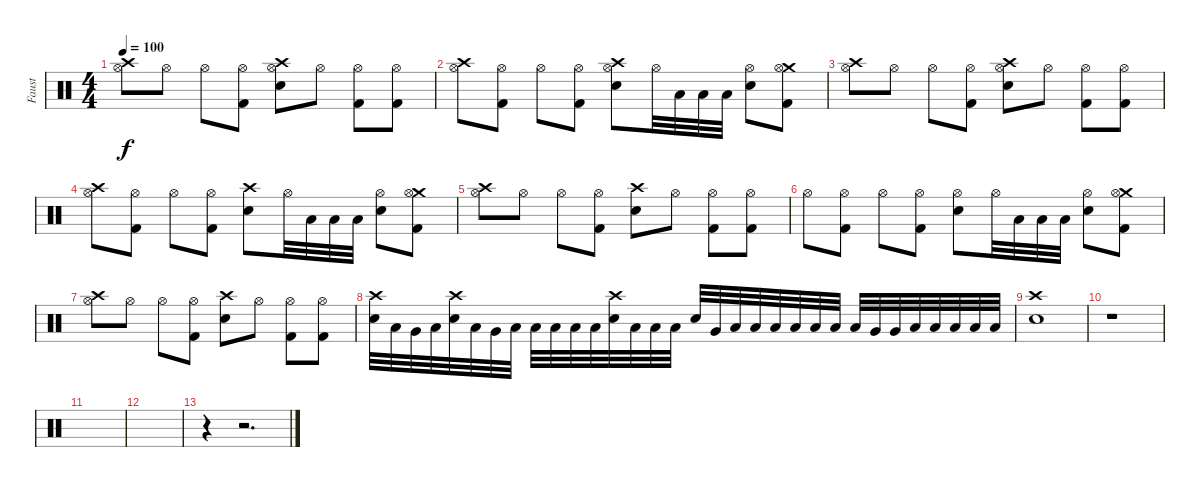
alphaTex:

\track ("Faust" "Faust") {instrument percussion}
\staff {score}
\articulation defaults
\ts (4 4)
\tempo 100
\clef neutral
\ks c
("Crash high (hit)" "Hi-Hat (open)").8{dy f} "Hi-Hat (open)".8 "Hi-Hat (open)".8 ("Hi-Hat (open)" "Kick (hit) 2").8 ("Crash high (hit)" "Snare (hit) 2" "Hi-Hat (open)").8 "Hi-Hat (open)".8 ("Hi-Hat (open)" "Kick (hit) 2").8 ("Hi-Hat (open)" "Kick (hit) 2").8 |
("Crash high (hit)" "Hi-Hat (open)").8 ("Hi-Hat (open)" "Kick (hit) 2").8 "Hi-Hat (open)".8 ("Hi-Hat (open)" "Kick (hit) 2").8 ("Crash high (hit)" "Snare (hit) 2" "Hi-Hat (open)").8 "Hi-Hat (open)".32 "Low Tom (hit)".32 "Low Tom (hit)".32 "Low Tom (hit)".32 ("Snare (hit) 2" "Hi-Hat (open)").8 ("Crash medium (hit)" "Hi-Hat (open)" "Kick (hit) 2").8 |
("Crash high (hit)" "Hi-Hat (open)").8 "Hi-Hat (open)".8 "Hi-Hat (open)".8 ("Hi-Hat (open)" "Kick (hit) 2").8 ("Crash high (hit)" "Snare (hit) 2" "Hi-Hat (open)").8 "Hi-Hat (open)".8 ("Hi-Hat (open)" "Kick (hit) 2").8 ("Hi-Hat (open)" "Kick (hit) 2").8 |
("Crash high (hit)" "Hi-Hat (open)").8 ("Hi-Hat (open)" "Kick (hit) 2").8 "Hi-Hat (open)".8 ("Hi-Hat (open)" "Kick (hit) 2").8 ("Crash high (hit)" "Snare (hit) 2").8 "Hi-Hat (open)".32 "Low Tom (hit)".32 "Low Tom (hit)".32 "Low Tom (hit)".32 ("Snare (hit) 2" "Hi-Hat (open)").8 ("Crash medium (hit)" "Hi-Hat (open)" "Kick (hit) 2").8 |
("Crash high (hit)" "Hi-Hat (open)").8 "Hi-Hat (open)".8 "Hi-Hat (open)".8 ("Hi-Hat (open)" "Kick (hit) 2").8 ("Crash high (hit)" "Snare (hit) 2").8 "Hi-Hat (open)".8 ("Hi-Hat (open)" "Kick (hit) 2").8 ("Hi-Hat (open)" "Kick (hit) 2").8 |
"Hi-Hat (open)".8 ("Hi-Hat (open)" "Kick (hit) 2").8 "Hi-Hat (open)".8 ("Hi-Hat (open)" "Kick (hit) 2").8 ("Snare (hit) 2" "Hi-Hat (open)").8 "Hi-Hat (open)".32 "Low Tom (hit)".32 "Low Tom (hit)".32 "Low Tom (hit)".32 ("Snare (hit) 2" "Hi-Hat (open)").8 ("Crash medium (hit)" "Hi-Hat (open)" "Kick (hit) 2").8 |
("Crash high (hit)" "Hi-Hat (open)").8 "Hi-Hat (open)".8 "Hi-Hat (open)".8 ("Hi-Hat (open)" "Kick (hit) 2").8 ("Crash high (hit)" "Snare (hit) 2").8 "Hi-Hat (open)".8 ("Hi-Hat (open)" "Kick (hit) 2").8 ("Hi-Hat (open)" "Kick (hit) 2").8 |
("Crash high (hit)" "Snare (hit) 2").32 "Low Tom (hit)".32 "Very Low Tom (hit)".32 "Low Floor Tom (hit)".32 ("Crash high (hit)" "Snare (hit) 2").32 "Low Tom (hit)".32 "Very Low Tom (hit)".32 "Low Floor Tom (hit)".32 "Low Floor Tom (hit)".32 "Low Floor Tom (hit)".32 "Low Floor Tom (hit)".32 "Low Floor Tom (hit)".32 ("Crash high (hit)" "Snare (hit) 2").32 "Low Floor Tom (hit)".32 "Low Tom (hit)".32 "Low Tom (hit)".32 "Snare (hit) 2".32 "Very Low Tom (hit)".32 "Low Floor Tom (hit)".32 "Low Tom (hit)".32 "Low Floor Tom (hit)".32 "Low Floor Tom (hit)".32 "Low Floor Tom (hit)".32 "Low Floor Tom (hit)".32 "Low Tom (hit)".32 "Very Low Tom (hit)".32 "Very Low Tom (hit)".32 "Low Floor Tom (hit)".32 "Low Floor Tom (hit)".32 "Low Floor Tom (hit)".32 "Low Floor Tom (hit)".32 "Low Floor Tom (hit)".32 |
("Crash high (hit)" "Snare (hit) 2").1 |
r.1 |
|
|
r.4 r.2{d}
